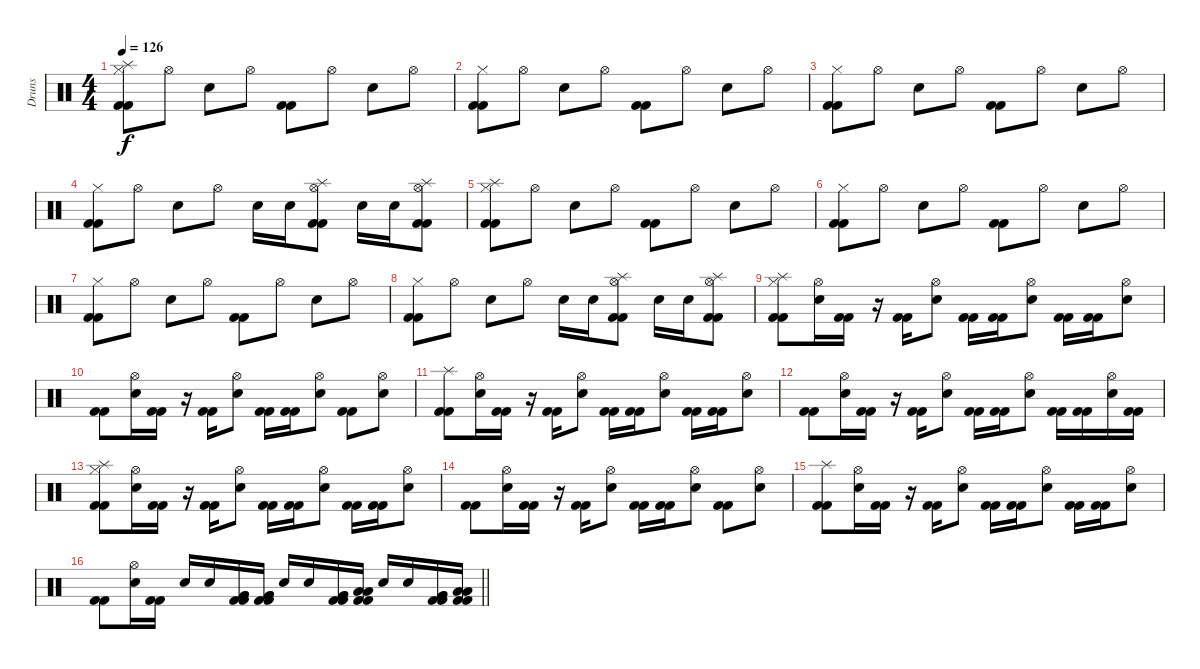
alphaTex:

\track ("Druns" "Druns") {instrument percussion}
\staff {score}
\articulation defaults
\ts (4 4)
\section ("" "")
\tempo 126
\clef neutral
\ks c
("Splash (hit)" "Hi-Hat (closed)" "Kick (hit) 2" "Kick (hit) 2").8{dy f} "Hi-Hat (open)".8 "Electric Snare (hit)".8 "Hi-Hat (open)".8 ("Kick (hit) 2" "Kick (hit) 2").8 "Hi-Hat (open)".8 "Electric Snare (hit)".8 "Hi-Hat (open)".8 |
("Hi-Hat (closed)" "Kick (hit) 2" "Kick (hit) 2").8 "Hi-Hat (open)".8 "Electric Snare (hit)".8 "Hi-Hat (open)".8 ("Kick (hit) 2" "Kick (hit) 2").8 "Hi-Hat (open)".8 "Electric Snare (hit)".8 "Hi-Hat (open)".8 |
("Hi-Hat (closed)" "Kick (hit) 2" "Kick (hit) 2").8 "Hi-Hat (open)".8 "Electric Snare (hit)".8 "Hi-Hat (open)".8 ("Kick (hit) 2" "Kick (hit) 2").8 "Hi-Hat (open)".8 "Electric Snare (hit)".8 "Hi-Hat (open)".8 |
("Hi-Hat (closed)" "Kick (hit) 2" "Kick (hit) 2").8 "Hi-Hat (open)".8 "Electric Snare (hit)".8 "Hi-Hat (open)".8 "Electric Snare (hit)".16 "Electric Snare (hit)".16 ("Splash (hit)" "Hi-Hat (open)" "Kick (hit) 2" "Kick (hit) 2").8 "Electric Snare (hit)".16 "Electric Snare (hit)".16 ("Splash (hit)" "Hi-Hat (open)" "Kick (hit) 2" "Kick (hit) 2").8 |
("Splash (hit)" "Hi-Hat (closed)" "Kick (hit) 2" "Kick (hit) 2").8 "Hi-Hat (open)".8 "Electric Snare (hit)".8 "Hi-Hat (open)".8 ("Kick (hit) 2" "Kick (hit) 2").8 "Hi-Hat (open)".8 "Electric Snare (hit)".8 "Hi-Hat (open)".8 |
("Hi-Hat (closed)" "Kick (hit) 2" "Kick (hit) 2").8 "Hi-Hat (open)".8 "Electric Snare (hit)".8 "Hi-Hat (open)".8 ("Kick (hit) 2" "Kick (hit) 2").8 "Hi-Hat (open)".8 "Electric Snare (hit)".8 "Hi-Hat (open)".8 |
("Hi-Hat (closed)" "Kick (hit) 2" "Kick (hit) 2").8 "Hi-Hat (open)".8 "Electric Snare (hit)".8 "Hi-Hat (open)".8 ("Kick (hit) 2" "Kick (hit) 2").8 "Hi-Hat (open)".8 "Electric Snare (hit)".8 "Hi-Hat (open)".8 |
("Hi-Hat (closed)" "Kick (hit) 2" "Kick (hit) 2").8 "Hi-Hat (open)".8 "Electric Snare (hit)".8 "Hi-Hat (open)".8 "Electric Snare (hit)".16 "Electric Snare (hit)".16 ("Splash (hit)" "Hi-Hat (open)" "Kick (hit) 2" "Kick (hit) 2").8 "Electric Snare (hit)".16 "Electric Snare (hit)".16 ("Splash (hit)" "Hi-Hat (open)" "Kick (hit) 2" "Kick (hit) 2").8 |
("Splash (hit)" "Hi-Hat (closed)" "Kick (hit) 2" "Kick (hit) 2").8 ("Hi-Hat (open)" "Electric Snare (hit)").16 ("Kick (hit) 2" "Kick (hit) 2").16 r.16 ("Kick (hit) 2" "Kick (hit) 2").16 ("Hi-Hat (open)" "Electric Snare (hit)").8 ("Kick (hit) 2" "Kick (hit) 2").16 ("Kick (hit) 2" "Kick (hit) 2").16 ("Hi-Hat (open)" "Electric Snare (hit)").8 ("Kick (hit) 2" "Kick (hit) 2").16 ("Kick (hit) 2" "Kick (hit) 2").16 ("Hi-Hat (open)" "Electric Snare (hit)").8 |
("Kick (hit) 2" "Kick (hit) 2").8 ("Hi-Hat (open)" "Electric Snare (hit)").16 ("Kick (hit) 2" "Kick (hit) 2").16 r.16 ("Kick (hit) 2" "Kick (hit) 2").16 ("Hi-Hat (open)" "Electric Snare (hit)").8 ("Kick (hit) 2" "Kick (hit) 2").16 ("Kick (hit) 2" "Kick (hit) 2").16 ("Hi-Hat (open)" "Electric Snare (hit)").8 ("Kick (hit) 2" "Kick (hit) 2").8 ("Hi-Hat (open)" "Electric Snare (hit)").8 |
("Splash (hit)" "Kick (hit) 2" "Kick (hit) 2").8 ("Hi-Hat (open)" "Electric Snare (hit)").16 ("Kick (hit) 2" "Kick (hit) 2").16 r.16 ("Kick (hit) 2" "Kick (hit) 2").16 ("Hi-Hat (open)" "Electric Snare (hit)").8 ("Kick (hit) 2" "Kick (hit) 2").16 ("Kick (hit) 2" "Kick (hit) 2").16 ("Hi-Hat (open)" "Electric Snare (hit)").8 ("Kick (hit) 2" "Kick (hit) 2").16 ("Kick (hit) 2" "Kick (hit) 2").16 ("Hi-Hat (open)" "Electric Snare (hit)").8 |
("Kick (hit) 2" "Kick (hit) 2").8 ("Hi-Hat (open)" "Electric Snare (hit)").16 ("Kick (hit) 2" "Kick (hit) 2").16 r.16 ("Kick (hit) 2" "Kick (hit) 2").16 ("Hi-Hat (open)" "Electric Snare (hit)").8 ("Kick (hit) 2" "Kick (hit) 2").16 ("Kick (hit) 2" "Kick (hit) 2").16 ("Hi-Hat (open)" "Electric Snare (hit)").8 ("Kick (hit) 2" "Kick (hit) 2").16 ("Kick (hit) 2" "Kick (hit) 2").16 ("Hi-Hat (open)" "Electric Snare (hit)").16 ("Kick (hit) 2" "Kick (hit) 2").16 |
("Splash (hit)" "Hi-Hat (closed)" "Kick (hit) 2" "Kick (hit) 2").8 ("Hi-Hat (open)" "Electric Snare (hit)").16 ("Kick (hit) 2" "Kick (hit) 2").16 r.16 ("Kick (hit) 2" "Kick (hit) 2").16 ("Hi-Hat (open)" "Electric Snare (hit)").8 ("Kick (hit) 2" "Kick (hit) 2").16 ("Kick (hit) 2" "Kick (hit) 2").16 ("Hi-Hat (open)" "Electric Snare (hit)").8 ("Kick (hit) 2" "Kick (hit) 2").16 ("Kick (hit) 2" "Kick (hit) 2").16 ("Hi-Hat (open)" "Electric Snare (hit)").8 |
("Kick (hit) 2" "Kick (hit) 2").8 ("Hi-Hat (open)" "Electric Snare (hit)").16 ("Kick (hit) 2" "Kick (hit) 2").16 r.16 ("Kick (hit) 2" "Kick (hit) 2").16 ("Hi-Hat (open)" "Electric Snare (hit)").8 ("Kick (hit) 2" "Kick (hit) 2").16 ("Kick (hit) 2" "Kick (hit) 2").16 ("Hi-Hat (open)" "Electric Snare (hit)").8 ("Kick (hit) 2" "Kick (hit) 2").8 ("Hi-Hat (open)" "Electric Snare (hit)").8 |
("Splash (hit)" "Kick (hit) 2" "Kick (hit) 2").8 ("Hi-Hat (open)" "Electric Snare (hit)").16 ("Kick (hit) 2" "Kick (hit) 2").16 r.16 ("Kick (hit) 2" "Kick (hit) 2").16 ("Hi-Hat (open)" "Electric Snare (hit)").8 ("Kick (hit) 2" "Kick (hit) 2").16 ("Kick (hit) 2" "Kick (hit) 2").16 ("Hi-Hat (open)" "Electric Snare (hit)").8 ("Kick (hit) 2" "Kick (hit) 2").16 ("Kick (hit) 2" "Kick (hit) 2").16 ("Hi-Hat (open)" "Electric Snare (hit)").8 |
\barLineRight lightlight
("Kick (hit) 2" "Kick (hit) 2").8 ("Hi-Hat (open)" "Electric Snare (hit)").16 ("Kick (hit) 2" "Kick (hit) 2").16 "Electric Snare (hit)".16 "Electric Snare (hit)".16 ("Very Low Tom (hit)" "Very Low Tom (hit)" "Kick (hit) 2" "Kick (hit) 2").16 ("Very Low Tom (hit)" "Very Low Tom (hit)" "Kick (hit) 2" "Kick (hit) 2").16 "Electric Snare (hit)".16 "Electric Snare (hit)".16 ("Very Low Tom (hit)" "Very Low Tom (hit)" "Kick (hit) 2" "Kick (hit) 2").16 ("Low Tom (hit)" "Low Tom (hit)" "Kick (hit) 2" "Kick (hit) 2").16 "Electric Snare (hit)".16 "Electric Snare (hit)".16 ("Very Low Tom (hit)" "Very Low Tom (hit)" "Kick (hit) 2" "Kick (hit) 2").16 ("Low Floor Tom (hit)" "Low Floor Tom (hit)" "Kick (hit) 2" "Kick (hit) 2").16
